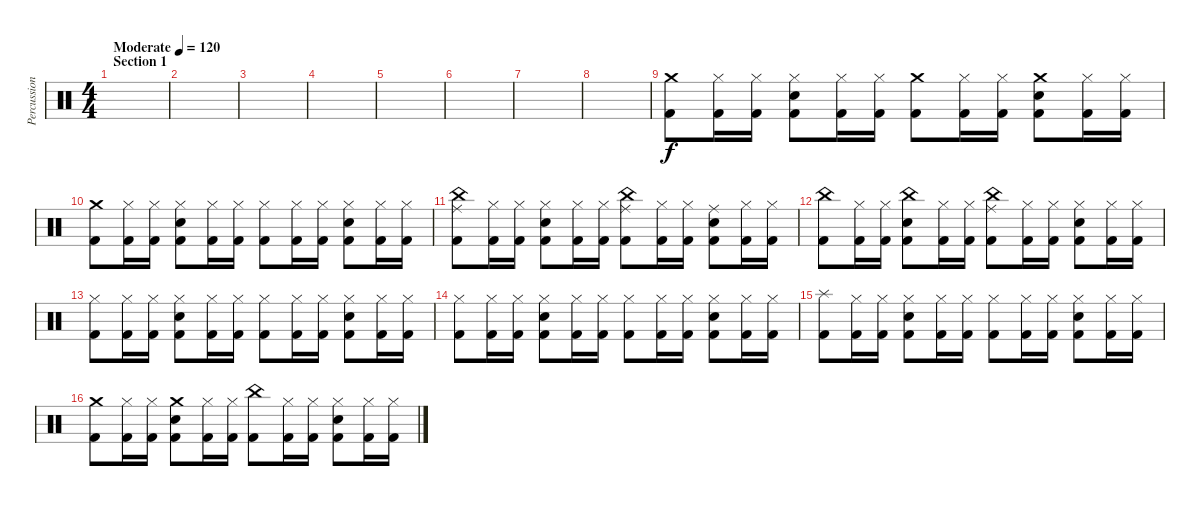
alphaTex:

\track ("Percussion" "Percussion") {instrument percussion}
\staff {score}
\articulation defaults
\ts (4 4)
\section ("" "Section 1")
\tempo (120 "Moderate")
\clef neutral
\ks c
|
|
|
|
|
|
|
|
("Kick (hit) 2" "Crash medium (hit)").8 ("Kick (hit) 2" "Hi-Hat (closed)").16 ("Kick (hit) 2" "Hi-Hat (closed)").16 ("Kick (hit) 2" "Snare (hit) 2" "Hi-Hat (closed)").8 ("Kick (hit) 2" "Hi-Hat (closed)").16 ("Kick (hit) 2" "Hi-Hat (closed)").16 ("Kick (hit) 2" "Crash medium (hit)").8 ("Kick (hit) 2" "Hi-Hat (closed)").16 ("Kick (hit) 2" "Hi-Hat (closed)").16 ("Kick (hit) 2" "Snare (hit) 2" "Crash medium (hit)").8 ("Kick (hit) 2" "Hi-Hat (closed)").16 ("Kick (hit) 2" "Hi-Hat (closed)").16 |
("Kick (hit) 2" "Crash medium (hit)").8 ("Kick (hit) 2" "Hi-Hat (closed)").16 ("Kick (hit) 2" "Hi-Hat (closed)").16 ("Kick (hit) 2" "Snare (hit) 2" "Hi-Hat (closed)").8 ("Kick (hit) 2" "Hi-Hat (closed)").16 ("Kick (hit) 2" "Hi-Hat (closed)").16 ("Kick (hit) 2" "Hi-Hat (closed)").8 ("Kick (hit) 2" "Hi-Hat (closed)").16 ("Kick (hit) 2" "Hi-Hat (closed)").16 ("Kick (hit) 2" "Snare (hit) 2" "Hi-Hat (closed)").8 ("Kick (hit) 2" "Hi-Hat (closed)").16 ("Kick (hit) 2" "Hi-Hat (closed)").16 |
("Kick (hit) 2" "Ride (middle)" "China (hit)").8 ("Kick (hit) 2" "Hi-Hat (closed)").16 ("Kick (hit) 2" "Hi-Hat (closed)").16 ("Kick (hit) 2" "Snare (hit) 2" "Hi-Hat (closed)").8 ("Kick (hit) 2" "Hi-Hat (closed)").16 ("Kick (hit) 2" "Hi-Hat (closed)").16 ("Kick (hit) 2" "Ride (middle)" "China (hit)").8 ("Kick (hit) 2" "Hi-Hat (closed)").16 ("Kick (hit) 2" "Hi-Hat (closed)").16 ("Kick (hit) 2" "Snare (hit) 2" "Ride (middle)").8 ("Kick (hit) 2" "Hi-Hat (closed)").16 ("Kick (hit) 2" "Hi-Hat (closed)").16 |
("Kick (hit) 2" "China (hit)").8 ("Kick (hit) 2" "Hi-Hat (closed)").16 ("Kick (hit) 2" "Hi-Hat (closed)").16 ("Kick (hit) 2" "Snare (hit) 2" "China (hit)").8 ("Kick (hit) 2" "Hi-Hat (closed)").16 ("Kick (hit) 2" "Hi-Hat (closed)").16 ("Kick (hit) 2" "Ride (middle)" "China (hit)").8 ("Kick (hit) 2" "Hi-Hat (closed)").16 ("Kick (hit) 2" "Hi-Hat (closed)").16 ("Kick (hit) 2" "Snare (hit) 2" "Hi-Hat (closed)").8 ("Kick (hit) 2" "Hi-Hat (closed)").16 ("Kick (hit) 2" "Hi-Hat (closed)").16 |
("Kick (hit) 2" "Hi-Hat (closed)").8 ("Kick (hit) 2" "Hi-Hat (closed)").16 ("Kick (hit) 2" "Hi-Hat (closed)").16 ("Kick (hit) 2" "Snare (hit) 2" "Hi-Hat (closed)").8 ("Kick (hit) 2" "Hi-Hat (closed)").16 ("Kick (hit) 2" "Hi-Hat (closed)").16 ("Kick (hit) 2" "Hi-Hat (closed)").8 ("Kick (hit) 2" "Hi-Hat (closed)").16 ("Kick (hit) 2" "Hi-Hat (closed)").16 ("Kick (hit) 2" "Snare (hit) 2" "Hi-Hat (closed)").8 ("Kick (hit) 2" "Hi-Hat (closed)").16 ("Kick (hit) 2" "Hi-Hat (closed)").16 |
("Kick (hit) 2" "Hi-Hat (closed)").8 ("Kick (hit) 2" "Hi-Hat (closed)").16 ("Kick (hit) 2" "Hi-Hat (closed)").16 ("Kick (hit) 2" "Snare (hit) 2" "Hi-Hat (closed)").8 ("Kick (hit) 2" "Hi-Hat (closed)").16 ("Kick (hit) 2" "Hi-Hat (closed)").16 ("Kick (hit) 2" "Hi-Hat (closed)").8 ("Kick (hit) 2" "Hi-Hat (closed)").16 ("Kick (hit) 2" "Hi-Hat (closed)").16 ("Kick (hit) 2" "Snare (hit) 2" "Hi-Hat (closed)").8 ("Kick (hit) 2" "Hi-Hat (closed)").16 ("Kick (hit) 2" "Hi-Hat (closed)").16 |
("Kick (hit) 2" "Splash (hit)").8 ("Kick (hit) 2" "Hi-Hat (closed)").16 ("Kick (hit) 2" "Hi-Hat (closed)").16 ("Kick (hit) 2" "Snare (hit) 2" "Hi-Hat (closed)").8 ("Kick (hit) 2" "Hi-Hat (closed)").16 ("Kick (hit) 2" "Hi-Hat (closed)").16 ("Kick (hit) 2" "Hi-Hat (closed)").8 ("Kick (hit) 2" "Hi-Hat (closed)").16 ("Kick (hit) 2" "Hi-Hat (closed)").16 ("Kick (hit) 2" "Snare (hit) 2" "Hi-Hat (closed)").8 ("Kick (hit) 2" "Hi-Hat (closed)").16 ("Kick (hit) 2" "Hi-Hat (closed)").16 |
("Kick (hit) 2" "Crash medium (hit)").8 ("Kick (hit) 2" "Hi-Hat (closed)").16 ("Kick (hit) 2" "Hi-Hat (closed)").16 ("Kick (hit) 2" "Snare (hit) 2" "Crash medium (hit)").8 ("Kick (hit) 2" "Hi-Hat (closed)").16 ("Kick (hit) 2" "Hi-Hat (closed)").16 ("Kick (hit) 2" "China (hit)").8 ("Kick (hit) 2" "Hi-Hat (closed)").16 ("Kick (hit) 2" "Hi-Hat (closed)").16 ("Kick (hit) 2" "Snare (hit) 2" "Hi-Hat (closed)").8 ("Kick (hit) 2" "Hi-Hat (closed)").16 ("Kick (hit) 2" "Hi-Hat (closed)").16
